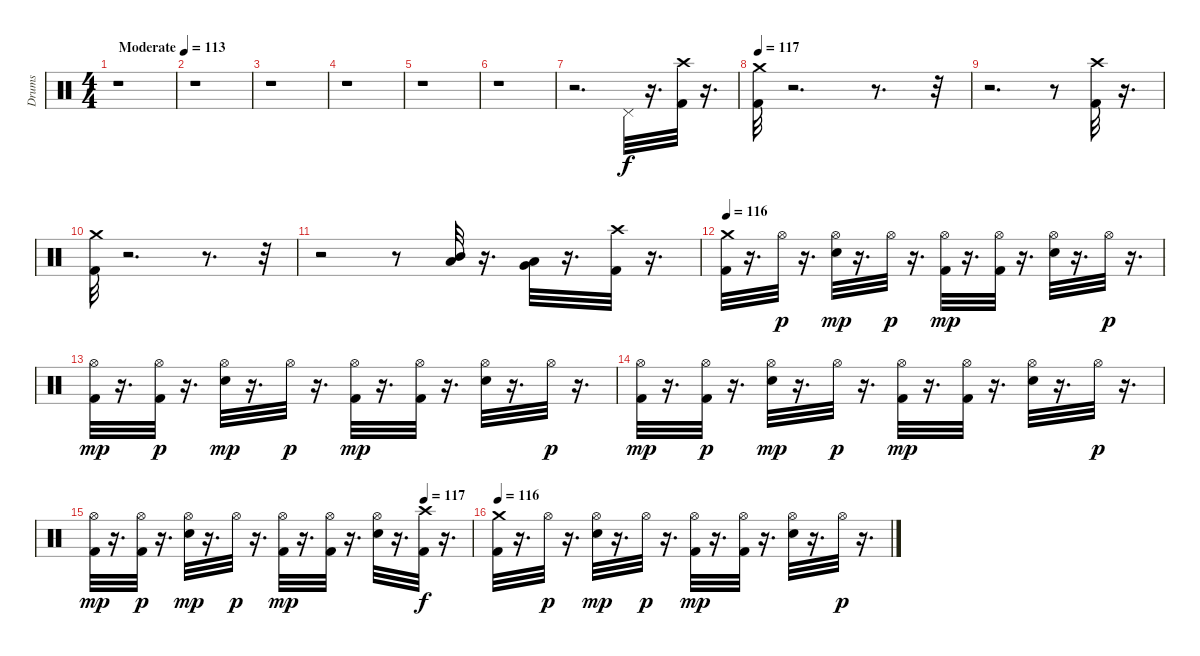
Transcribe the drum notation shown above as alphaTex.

\track ("Drums" "Drums") {instrument percussion}
\staff {score}
\articulation defaults
\ts (4 4)
\tempo (113 "Moderate")
\clef neutral
\ks c
r.1{dy f} |
r.1 |
r.1 |
r.1 |
r.1 |
r.1 |
r.2{d} "Pedal Hi-Hat (hit)".32 r.16{d} ("Crash high (hit)" "Kick (hit) 2").32 r.16{d} |
\tempo 117
("Crash medium (hit)" "Kick (hit) 2").32 r.2{d} r.8{d} r.32 |
r.2{d} r.8 ("Crash high (hit)" "Kick (hit) 2").32 r.16{d} |
("Crash medium (hit)" "Kick (hit) 2").32 r.2{d} r.8{d} r.32 |
r.2 r.8 ("Mid Tom (hit)" "Low Tom (hit)").32 r.16{d} ("Low Tom (hit)" "Very Low Tom (hit)").32 r.16{d} ("Crash high (hit)" "Kick (hit) 2").32 r.16{d} |
\tempo 116
("Crash medium (hit)" "Kick (hit) 2").32 r.16{d} "Hi-Hat (open)".32{dy p} r.16{d} ("Hi-Hat (open)" "Snare (hit) 2").32{dy mp} r.16{d} "Hi-Hat (open)".32{dy p} r.16{d} ("Kick (hit) 2" "Hi-Hat (open)").32{dy mp} r.16{d} ("Hi-Hat (open)" "Kick (hit) 2").32 r.16{d} ("Snare (hit) 2" "Hi-Hat (open)").32 r.16{d} "Hi-Hat (open)".32{dy p} r.16{d} |
("Kick (hit) 2" "Hi-Hat (open)").32{dy mp} r.16{d} ("Kick (hit) 2" "Hi-Hat (open)").32{dy p} r.16{d} ("Hi-Hat (open)" "Snare (hit) 2").32{dy mp} r.16{d} "Hi-Hat (open)".32{dy p} r.16{d} ("Kick (hit) 2" "Hi-Hat (open)").32{dy mp} r.16{d} ("Hi-Hat (open)" "Kick (hit) 2").32 r.16{d} ("Snare (hit) 2" "Hi-Hat (open)").32 r.16{d} "Hi-Hat (open)".32{dy p} r.16{d} |
("Kick (hit) 2" "Hi-Hat (open)").32{dy mp} r.16{d} ("Kick (hit) 2" "Hi-Hat (open)").32{dy p} r.16{d} ("Hi-Hat (open)" "Snare (hit) 2").32{dy mp} r.16{d} "Hi-Hat (open)".32{dy p} r.16{d} ("Kick (hit) 2" "Hi-Hat (open)").32{dy mp} r.16{d} ("Hi-Hat (open)" "Kick (hit) 2").32 r.16{d} ("Snare (hit) 2" "Hi-Hat (open)").32 r.16{d} "Hi-Hat (open)".32{dy p} r.16{d} |
\tempo (117 0.875)
("Kick (hit) 2" "Hi-Hat (open)").32{dy mp} r.16{d} ("Kick (hit) 2" "Hi-Hat (open)").32{dy p} r.16{d} ("Hi-Hat (open)" "Snare (hit) 2").32{dy mp} r.16{d} "Hi-Hat (open)".32{dy p} r.16{d} ("Kick (hit) 2" "Hi-Hat (open)").32{dy mp} r.16{d} ("Hi-Hat (open)" "Kick (hit) 2").32 r.16{d} ("Snare (hit) 2" "Hi-Hat (open)").32 r.16{d} ("Crash high (hit)" "Kick (hit) 2").32{dy f} r.16{d} |
\tempo 116
("Crash medium (hit)" "Kick (hit) 2").32 r.16{d} "Hi-Hat (open)".32{dy p} r.16{d} ("Hi-Hat (open)" "Snare (hit) 2").32{dy mp} r.16{d} "Hi-Hat (open)".32{dy p} r.16{d} ("Kick (hit) 2" "Hi-Hat (open)").32{dy mp} r.16{d} ("Hi-Hat (open)" "Kick (hit) 2").32 r.16{d} ("Snare (hit) 2" "Hi-Hat (open)").32 r.16{d} "Hi-Hat (open)".32{dy p} r.16{d}
